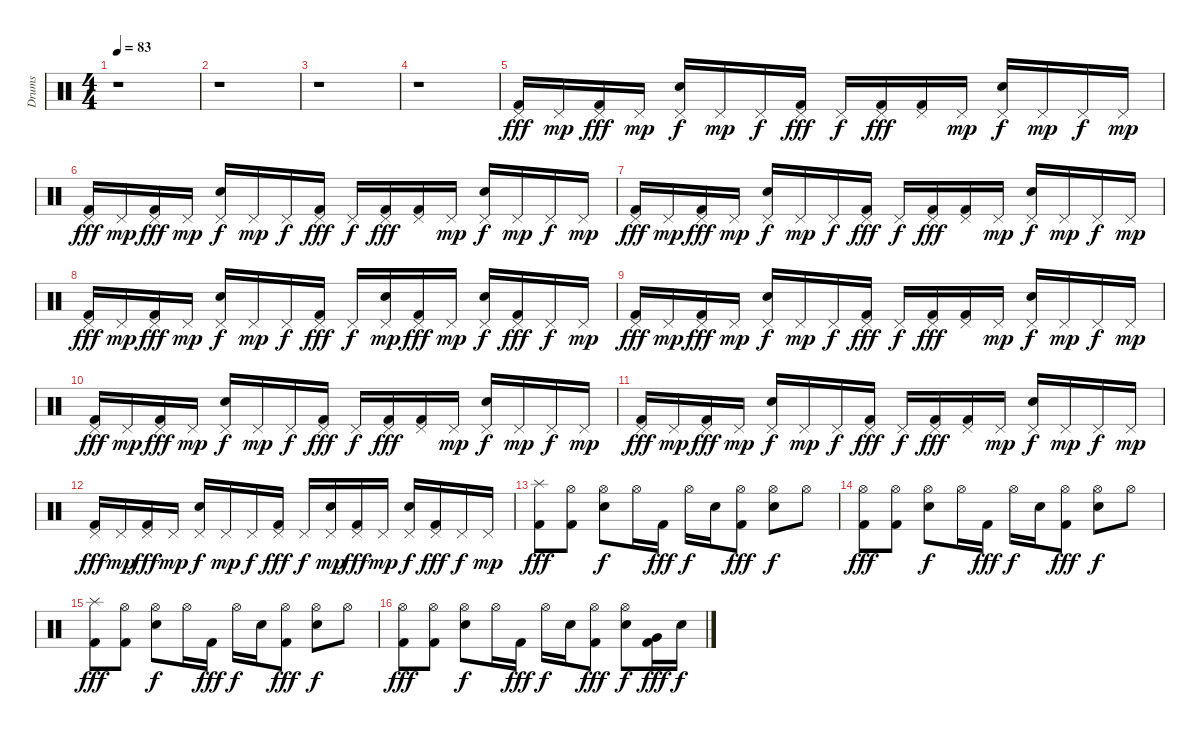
\track ("Drums" "Drums") {instrument percussion}
\staff {score}
\articulation defaults
\ts (4 4)
\tempo 83
\clef neutral
\ks c
r.1{dy mp} |
r.1 |
r.1 |
r.1 |
("Pedal Hi-Hat (hit)" "Kick (hit) 2").16{dy fff} "Pedal Hi-Hat (hit)".16{dy mp} ("Pedal Hi-Hat (hit)" "Kick (hit) 2").16{dy fff} "Pedal Hi-Hat (hit)".16{dy mp} ("Pedal Hi-Hat (hit)" "Snare (hit) 2").16{dy f} "Pedal Hi-Hat (hit)".16{dy mp} "Pedal Hi-Hat (hit)".16{dy f} ("Pedal Hi-Hat (hit)" "Kick (hit) 2").16{dy fff} "Pedal Hi-Hat (hit)".16{dy f} ("Pedal Hi-Hat (hit)" "Kick (hit) 2").16{dy fff} ("Pedal Hi-Hat (hit)" "Kick (hit) 2").16 "Pedal Hi-Hat (hit)".16{dy mp} ("Pedal Hi-Hat (hit)" "Snare (hit) 2").16{dy f} "Pedal Hi-Hat (hit)".16{dy mp} "Pedal Hi-Hat (hit)".16{dy f} "Pedal Hi-Hat (hit)".16{dy mp} |
("Pedal Hi-Hat (hit)" "Kick (hit) 2").16{dy fff} "Pedal Hi-Hat (hit)".16{dy mp} ("Pedal Hi-Hat (hit)" "Kick (hit) 2").16{dy fff} "Pedal Hi-Hat (hit)".16{dy mp} ("Pedal Hi-Hat (hit)" "Snare (hit) 2").16{dy f} "Pedal Hi-Hat (hit)".16{dy mp} "Pedal Hi-Hat (hit)".16{dy f} ("Pedal Hi-Hat (hit)" "Kick (hit) 2").16{dy fff} "Pedal Hi-Hat (hit)".16{dy f} ("Pedal Hi-Hat (hit)" "Kick (hit) 2").16{dy fff} ("Pedal Hi-Hat (hit)" "Kick (hit) 2").16 "Pedal Hi-Hat (hit)".16{dy mp} ("Pedal Hi-Hat (hit)" "Snare (hit) 2").16{dy f} "Pedal Hi-Hat (hit)".16{dy mp} "Pedal Hi-Hat (hit)".16{dy f} "Pedal Hi-Hat (hit)".16{dy mp} |
("Pedal Hi-Hat (hit)" "Kick (hit) 2").16{dy fff} "Pedal Hi-Hat (hit)".16{dy mp} ("Pedal Hi-Hat (hit)" "Kick (hit) 2").16{dy fff} "Pedal Hi-Hat (hit)".16{dy mp} ("Pedal Hi-Hat (hit)" "Snare (hit) 2").16{dy f} "Pedal Hi-Hat (hit)".16{dy mp} "Pedal Hi-Hat (hit)".16{dy f} ("Pedal Hi-Hat (hit)" "Kick (hit) 2").16{dy fff} "Pedal Hi-Hat (hit)".16{dy f} ("Pedal Hi-Hat (hit)" "Kick (hit) 2").16{dy fff} ("Pedal Hi-Hat (hit)" "Kick (hit) 2").16 "Pedal Hi-Hat (hit)".16{dy mp} ("Pedal Hi-Hat (hit)" "Snare (hit) 2").16{dy f} "Pedal Hi-Hat (hit)".16{dy mp} "Pedal Hi-Hat (hit)".16{dy f} "Pedal Hi-Hat (hit)".16{dy mp} |
("Pedal Hi-Hat (hit)" "Kick (hit) 2").16{dy fff} "Pedal Hi-Hat (hit)".16{dy mp} ("Pedal Hi-Hat (hit)" "Kick (hit) 2").16{dy fff} "Pedal Hi-Hat (hit)".16{dy mp} ("Pedal Hi-Hat (hit)" "Snare (hit) 2").16{dy f} "Pedal Hi-Hat (hit)".16{dy mp} "Pedal Hi-Hat (hit)".16{dy f} ("Pedal Hi-Hat (hit)" "Kick (hit) 2").16{dy fff} "Pedal Hi-Hat (hit)".16{dy f} ("Pedal Hi-Hat (hit)" "Snare (hit) 2").16{dy mp} ("Pedal Hi-Hat (hit)" "Kick (hit) 2").16{dy fff} "Pedal Hi-Hat (hit)".16{dy mp} ("Pedal Hi-Hat (hit)" "Snare (hit) 2").16{dy f} ("Pedal Hi-Hat (hit)" "Kick (hit) 2").16{dy fff} "Pedal Hi-Hat (hit)".16{dy f} "Pedal Hi-Hat (hit)".16{dy mp} |
("Pedal Hi-Hat (hit)" "Kick (hit) 2").16{dy fff} "Pedal Hi-Hat (hit)".16{dy mp} ("Pedal Hi-Hat (hit)" "Kick (hit) 2").16{dy fff} "Pedal Hi-Hat (hit)".16{dy mp} ("Pedal Hi-Hat (hit)" "Snare (hit) 2").16{dy f} "Pedal Hi-Hat (hit)".16{dy mp} "Pedal Hi-Hat (hit)".16{dy f} ("Pedal Hi-Hat (hit)" "Kick (hit) 2").16{dy fff} "Pedal Hi-Hat (hit)".16{dy f} ("Pedal Hi-Hat (hit)" "Kick (hit) 2").16{dy fff} ("Pedal Hi-Hat (hit)" "Kick (hit) 2").16 "Pedal Hi-Hat (hit)".16{dy mp} ("Pedal Hi-Hat (hit)" "Snare (hit) 2").16{dy f} "Pedal Hi-Hat (hit)".16{dy mp} "Pedal Hi-Hat (hit)".16{dy f} "Pedal Hi-Hat (hit)".16{dy mp} |
("Pedal Hi-Hat (hit)" "Kick (hit) 2").16{dy fff} "Pedal Hi-Hat (hit)".16{dy mp} ("Pedal Hi-Hat (hit)" "Kick (hit) 2").16{dy fff} "Pedal Hi-Hat (hit)".16{dy mp} ("Pedal Hi-Hat (hit)" "Snare (hit) 2").16{dy f} "Pedal Hi-Hat (hit)".16{dy mp} "Pedal Hi-Hat (hit)".16{dy f} ("Pedal Hi-Hat (hit)" "Kick (hit) 2").16{dy fff} "Pedal Hi-Hat (hit)".16{dy f} ("Pedal Hi-Hat (hit)" "Kick (hit) 2").16{dy fff} ("Pedal Hi-Hat (hit)" "Kick (hit) 2").16 "Pedal Hi-Hat (hit)".16{dy mp} ("Pedal Hi-Hat (hit)" "Snare (hit) 2").16{dy f} "Pedal Hi-Hat (hit)".16{dy mp} "Pedal Hi-Hat (hit)".16{dy f} "Pedal Hi-Hat (hit)".16{dy mp} |
("Pedal Hi-Hat (hit)" "Kick (hit) 2").16{dy fff} "Pedal Hi-Hat (hit)".16{dy mp} ("Pedal Hi-Hat (hit)" "Kick (hit) 2").16{dy fff} "Pedal Hi-Hat (hit)".16{dy mp} ("Pedal Hi-Hat (hit)" "Snare (hit) 2").16{dy f} "Pedal Hi-Hat (hit)".16{dy mp} "Pedal Hi-Hat (hit)".16{dy f} ("Pedal Hi-Hat (hit)" "Kick (hit) 2").16{dy fff} "Pedal Hi-Hat (hit)".16{dy f} ("Pedal Hi-Hat (hit)" "Kick (hit) 2").16{dy fff} ("Pedal Hi-Hat (hit)" "Kick (hit) 2").16 "Pedal Hi-Hat (hit)".16{dy mp} ("Pedal Hi-Hat (hit)" "Snare (hit) 2").16{dy f} "Pedal Hi-Hat (hit)".16{dy mp} "Pedal Hi-Hat (hit)".16{dy f} "Pedal Hi-Hat (hit)".16{dy mp} |
("Pedal Hi-Hat (hit)" "Kick (hit) 2").16{dy fff} "Pedal Hi-Hat (hit)".16{dy mp} ("Pedal Hi-Hat (hit)" "Kick (hit) 2").16{dy fff} "Pedal Hi-Hat (hit)".16{dy mp} ("Pedal Hi-Hat (hit)" "Snare (hit) 2").16{dy f} "Pedal Hi-Hat (hit)".16{dy mp} "Pedal Hi-Hat (hit)".16{dy f} ("Pedal Hi-Hat (hit)" "Kick (hit) 2").16{dy fff} "Pedal Hi-Hat (hit)".16{dy f} ("Pedal Hi-Hat (hit)" "Snare (hit) 2").16{dy mp} ("Pedal Hi-Hat (hit)" "Kick (hit) 2").16{dy fff} "Pedal Hi-Hat (hit)".16{dy mp} ("Pedal Hi-Hat (hit)" "Snare (hit) 2").16{dy f} ("Pedal Hi-Hat (hit)" "Kick (hit) 2").16{dy fff} "Pedal Hi-Hat (hit)".16{dy f} "Pedal Hi-Hat (hit)".16{dy mp} |
("Splash (hit)" "Kick (hit) 2").8{dy fff} ("Hi-Hat (open)" "Kick (hit) 2").8 ("Hi-Hat (open)" "Snare (hit) 2").8{dy f} "Hi-Hat (open)".16 "Kick (hit) 2".16{dy fff} "Hi-Hat (open)".16{dy f} "Snare (hit) 2".16 ("Hi-Hat (open)" "Kick (hit) 2").8{dy fff} ("Hi-Hat (open)" "Snare (hit) 2").8{dy f} "Hi-Hat (open)".8 |
("Hi-Hat (open)" "Kick (hit) 2").8{dy fff} ("Hi-Hat (open)" "Kick (hit) 2").8 ("Hi-Hat (open)" "Snare (hit) 2").8{dy f} "Hi-Hat (open)".16 "Kick (hit) 2".16{dy fff} "Hi-Hat (open)".16{dy f} "Snare (hit) 2".16 ("Hi-Hat (open)" "Kick (hit) 2").8{dy fff} ("Hi-Hat (open)" "Snare (hit) 2").8{dy f} "Hi-Hat (open)".8 |
("Splash (hit)" "Kick (hit) 2").8{dy fff} ("Hi-Hat (open)" "Kick (hit) 2").8 ("Hi-Hat (open)" "Snare (hit) 2").8{dy f} "Hi-Hat (open)".16 "Kick (hit) 2".16{dy fff} "Hi-Hat (open)".16{dy f} "Snare (hit) 2".16 ("Hi-Hat (open)" "Kick (hit) 2").8{dy fff} ("Hi-Hat (open)" "Snare (hit) 2").8{dy f} "Hi-Hat (open)".8 |
("Hi-Hat (open)" "Kick (hit) 2").8{dy fff} ("Hi-Hat (open)" "Kick (hit) 2").8 ("Hi-Hat (open)" "Snare (hit) 2").8{dy f} "Hi-Hat (open)".16 "Kick (hit) 2".16{dy fff} "Hi-Hat (open)".16{dy f} "Snare (hit) 2".16 ("Hi-Hat (open)" "Kick (hit) 2").8{dy fff} ("Hi-Hat (open)" "Snare (hit) 2").8{dy f} ("Very Low Tom (hit)" "Kick (hit) 2").16{dy fff} "Snare (hit) 2".16{dy f}
